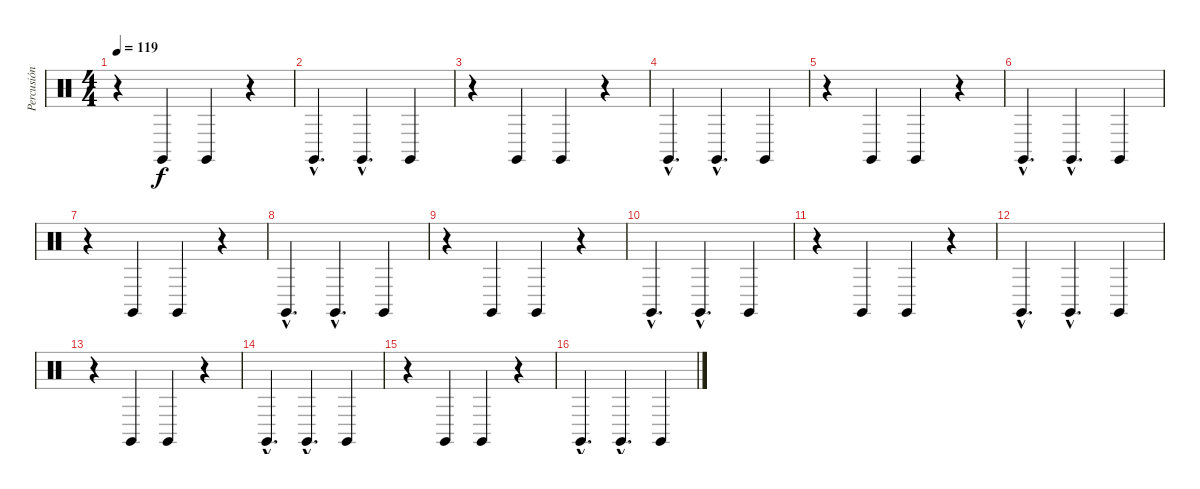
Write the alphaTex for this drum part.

\track ("Percusión" "Percusión") {instrument percussion}
\staff {score}
\articulation defaults
\ts (4 4)
\tempo 119
\clef neutral
\ks c
r.4{dy f} "Claves (hit)".4 "Claves (hit)".4 r.4 |
"Claves (hit)"{hac}.4{d} "Claves (hit)"{hac}.4{d} "Claves (hit)".4 |
r.4 "Claves (hit)".4 "Claves (hit)".4 r.4 |
"Claves (hit)"{hac}.4{d} "Claves (hit)"{hac}.4{d} "Claves (hit)".4 |
r.4 "Claves (hit)".4 "Claves (hit)".4 r.4 |
"Claves (hit)"{hac}.4{d} "Claves (hit)"{hac}.4{d} "Claves (hit)".4 |
r.4 "Claves (hit)".4 "Claves (hit)".4 r.4 |
"Claves (hit)"{hac}.4{d} "Claves (hit)"{hac}.4{d} "Claves (hit)".4 |
r.4 "Claves (hit)".4 "Claves (hit)".4 r.4 |
"Claves (hit)"{hac}.4{d} "Claves (hit)"{hac}.4{d} "Claves (hit)".4 |
r.4 "Claves (hit)".4 "Claves (hit)".4 r.4 |
"Claves (hit)"{hac}.4{d} "Claves (hit)"{hac}.4{d} "Claves (hit)".4 |
r.4 "Claves (hit)".4 "Claves (hit)".4 r.4 |
"Claves (hit)"{hac}.4{d} "Claves (hit)"{hac}.4{d} "Claves (hit)".4 |
r.4 "Claves (hit)".4 "Claves (hit)".4 r.4 |
"Claves (hit)"{hac}.4{d} "Claves (hit)"{hac}.4{d} "Claves (hit)".4
